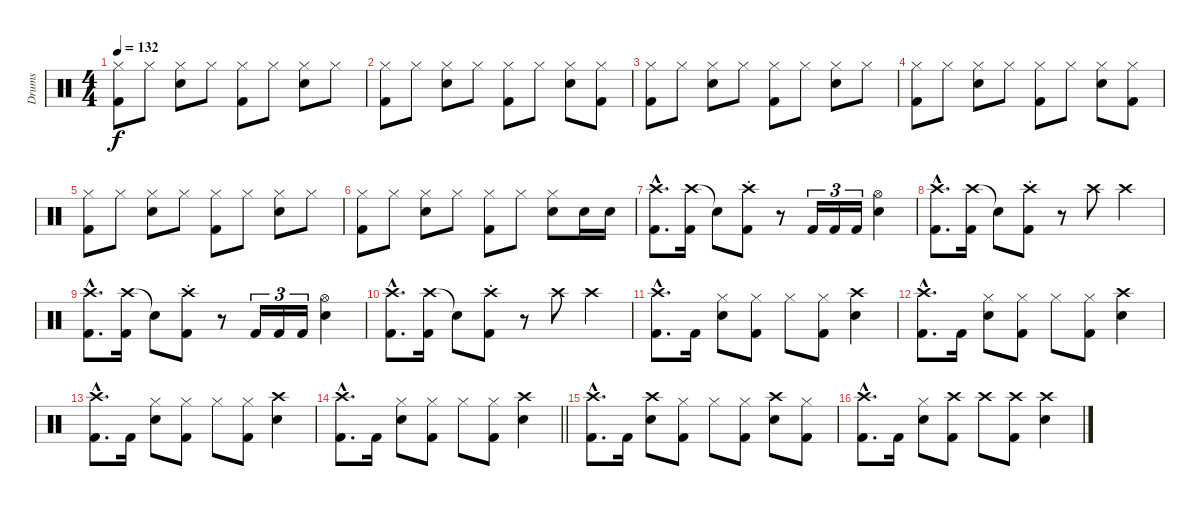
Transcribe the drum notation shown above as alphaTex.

\track ("Drums" "Drums") {instrument percussion}
\staff {score}
\articulation defaults
\ts (4 4)
\tempo 132
\clef neutral
\ks c
("Hi-Hat (closed)" "Kick (hit) 2").8{dy f} "Hi-Hat (closed)".8 ("Hi-Hat (closed)" "Snare (hit) 2").8 "Hi-Hat (closed)".8 ("Hi-Hat (closed)" "Kick (hit) 2").8 "Hi-Hat (closed)".8 ("Hi-Hat (closed)" "Snare (hit) 2").8 "Hi-Hat (closed)".8 |
("Hi-Hat (closed)" "Kick (hit) 2").8 "Hi-Hat (closed)".8 ("Hi-Hat (closed)" "Snare (hit) 2").8 "Hi-Hat (closed)".8 ("Hi-Hat (closed)" "Kick (hit) 2").8 "Hi-Hat (closed)".8 ("Hi-Hat (closed)" "Snare (hit) 2").8 ("Hi-Hat (closed)" "Kick (hit) 2").8 |
("Hi-Hat (closed)" "Kick (hit) 2").8 "Hi-Hat (closed)".8 ("Hi-Hat (closed)" "Snare (hit) 2").8 "Hi-Hat (closed)".8 ("Hi-Hat (closed)" "Kick (hit) 2").8 "Hi-Hat (closed)".8 ("Hi-Hat (closed)" "Snare (hit) 2").8 "Hi-Hat (closed)".8 |
("Hi-Hat (closed)" "Kick (hit) 2").8 "Hi-Hat (closed)".8 ("Hi-Hat (closed)" "Snare (hit) 2").8 "Hi-Hat (closed)".8 ("Hi-Hat (closed)" "Kick (hit) 2").8 "Hi-Hat (closed)".8 ("Hi-Hat (closed)" "Snare (hit) 2").8 ("Hi-Hat (closed)" "Kick (hit) 2").8 |
("Hi-Hat (closed)" "Kick (hit) 2").8 "Hi-Hat (closed)".8 ("Hi-Hat (closed)" "Snare (hit) 2").8 "Hi-Hat (closed)".8 ("Hi-Hat (closed)" "Kick (hit) 2").8 "Hi-Hat (closed)".8 ("Hi-Hat (closed)" "Snare (hit) 2").8 "Hi-Hat (closed)".8 |
("Hi-Hat (closed)" "Kick (hit) 2").8 "Hi-Hat (closed)".8 ("Hi-Hat (closed)" "Snare (hit) 2").8 "Hi-Hat (closed)".8 ("Hi-Hat (closed)" "Kick (hit) 2").8 "Hi-Hat (closed)".8 ("Hi-Hat (closed)" "Snare (hit) 2").8 "Snare (hit) 2".16 "Snare (hit) 2".16 |
("Crash high (hit)"{hac} "Kick (hit) 2"{hac}).8{d} ("Crash high (hit)" "Kick (hit) 2").16 "Snare (hit)"{t}.8 ("Crash high (hit)"{st} "Kick (hit) 2"{st}).8 r.8 "Kick (hit) 2".16{tu (3 2)} "Kick (hit) 2".16{tu (3 2)} "Kick (hit) 2".16{tu (3 2)} ("Hi-Hat (open)" "Snare (hit) 2").4 |
("Crash high (hit)"{hac} "Kick (hit) 2"{hac}).8{d} ("Crash high (hit)" "Kick (hit) 2").16 "Snare (hit)"{t}.8 ("Crash high (hit)"{st} "Kick (hit) 2"{st}).8 r.8 "Crash high (hit)".8 "Crash high (hit)".4 |
("Crash high (hit)"{hac} "Kick (hit) 2"{hac}).8{d} ("Crash high (hit)" "Kick (hit) 2").16 "Snare (hit)"{t}.8 ("Crash high (hit)"{st} "Kick (hit) 2"{st}).8 r.8 "Kick (hit) 2".16{tu (3 2)} "Kick (hit) 2".16{tu (3 2)} "Kick (hit) 2".16{tu (3 2)} ("Hi-Hat (open)" "Snare (hit) 2").4 |
("Crash high (hit)"{hac} "Kick (hit) 2"{hac}).8{d} ("Crash high (hit)" "Kick (hit) 2").16 "Snare (hit)"{t}.8 ("Crash high (hit)"{st} "Kick (hit) 2"{st}).8 r.8 "Crash high (hit)".8 "Crash high (hit)".4 |
("Crash high (hit)"{hac} "Kick (hit) 2"{hac}).8{d} "Kick (hit) 2".16 ("Hi-Hat (closed)" "Snare (hit) 2").8 ("Hi-Hat (closed)" "Kick (hit) 2").8 "Hi-Hat (closed)".8 ("Hi-Hat (closed)" "Kick (hit) 2").8 ("Crash high (hit)" "Snare (hit) 2").4 |
("Crash high (hit)"{hac} "Kick (hit) 2"{hac}).8{d} "Kick (hit) 2".16 ("Hi-Hat (closed)" "Snare (hit) 2").8 ("Hi-Hat (closed)" "Kick (hit) 2").8 "Hi-Hat (closed)".8 ("Hi-Hat (closed)" "Kick (hit) 2").8 ("Crash high (hit)" "Snare (hit) 2").4 |
("Crash high (hit)"{hac} "Kick (hit) 2"{hac}).8{d} "Kick (hit) 2".16 ("Hi-Hat (closed)" "Snare (hit) 2").8 ("Hi-Hat (closed)" "Kick (hit) 2").8 "Hi-Hat (closed)".8 ("Hi-Hat (closed)" "Kick (hit) 2").8 ("Crash high (hit)" "Snare (hit) 2").4 |
\barLineRight lightlight
("Crash high (hit)"{hac} "Kick (hit) 2"{hac}).8{d} "Kick (hit) 2".16 ("Hi-Hat (closed)" "Snare (hit) 2").8 ("Hi-Hat (closed)" "Kick (hit) 2").8 "Hi-Hat (closed)".8 ("Hi-Hat (closed)" "Kick (hit) 2").8 ("Crash high (hit)" "Snare (hit) 2").4 |
("Crash high (hit)"{hac} "Kick (hit) 2"{hac}).8{d} "Kick (hit) 2".16 ("Crash high (hit)" "Snare (hit) 2").8 ("Hi-Hat (closed)" "Kick (hit) 2").8 "Hi-Hat (closed)".8 ("Hi-Hat (closed)" "Kick (hit) 2").8 ("Crash high (hit)" "Snare (hit) 2").8 ("Hi-Hat (closed)" "Kick (hit) 2").8 |
("Crash high (hit)"{hac} "Kick (hit) 2"{hac}).8{d} "Kick (hit) 2".16 ("Hi-Hat (closed)" "Snare (hit) 2").8 ("Crash high (hit)" "Kick (hit) 2").8 "Crash high (hit)".8 ("Crash high (hit)" "Kick (hit) 2").8 ("Crash high (hit)" "Snare (hit) 2").4
